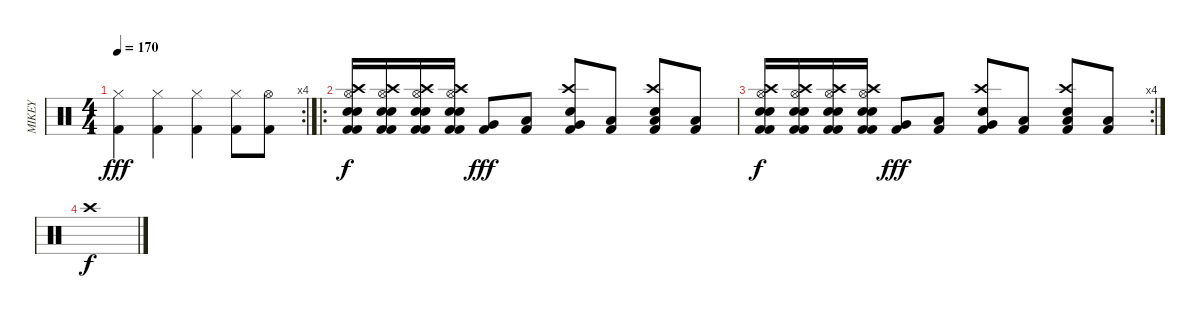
\track ("MIKEY" "MIKEY") {instrument percussion}
\staff {score}
\articulation defaults
\rc 4
\ts (4 4)
\tempo 170
\clef neutral
\ks c
("Hi-Hat (closed)" "Kick (hit) 2").4{dy fff} ("Hi-Hat (closed)" "Kick (hit) 2").4 ("Hi-Hat (closed)" "Kick (hit) 2").4 ("Hi-Hat (closed)" "Kick (hit) 2").8 ("Hi-Hat (open)" "Kick (hit) 2").8 |
\ro
("Crash high (hit)" "Hi-Hat (open)" "Kick (hit) 2" "Electric Snare (hit)" "Kick (hit) 2" "Snare (hit) 2").16{dy f} ("Crash high (hit)" "Hi-Hat (open)" "Kick (hit) 2" "Electric Snare (hit)" "Kick (hit) 2" "Snare (hit) 2").16 ("Crash high (hit)" "Hi-Hat (open)" "Kick (hit) 2" "Electric Snare (hit)" "Kick (hit) 2" "Snare (hit) 2").16 ("Crash high (hit)" "Hi-Hat (open)" "Kick (hit) 2" "Electric Snare (hit)" "Kick (hit) 2" "Snare (hit) 2").16 ("Kick (hit) 2" "Very Low Tom (hit)").8{dy fff} ("Kick (hit) 2" "Low Tom (hit)").8 ("Crash high (hit)" "Electric Snare (hit)" "Kick (hit) 2" "Very Low Tom (hit)").8 ("Kick (hit) 2" "Low Floor Tom (hit)").8 ("Crash high (hit)" "Electric Snare (hit)" "Kick (hit) 2" "Low Floor Tom (hit)").8 ("Kick (hit) 2" "Low Floor Tom (hit)").8 |
\rc 4
("Crash high (hit)" "Hi-Hat (open)" "Kick (hit) 2" "Electric Snare (hit)" "Kick (hit) 2" "Snare (hit) 2").16{dy f} ("Crash high (hit)" "Hi-Hat (open)" "Kick (hit) 2" "Electric Snare (hit)" "Kick (hit) 2" "Snare (hit) 2").16 ("Crash high (hit)" "Hi-Hat (open)" "Kick (hit) 2" "Electric Snare (hit)" "Kick (hit) 2" "Snare (hit) 2").16 ("Crash high (hit)" "Hi-Hat (open)" "Kick (hit) 2" "Electric Snare (hit)" "Kick (hit) 2" "Snare (hit) 2").16 ("Kick (hit) 2" "Very Low Tom (hit)").8{dy fff} ("Kick (hit) 2" "Low Tom (hit)").8 ("Crash high (hit)" "Electric Snare (hit)" "Kick (hit) 2" "Very Low Tom (hit)").8 ("Kick (hit) 2" "Low Floor Tom (hit)").8 ("Crash high (hit)" "Electric Snare (hit)" "Kick (hit) 2" "Low Floor Tom (hit)").8 ("Kick (hit) 2" "Low Floor Tom (hit)").8 |
"Crash high (hit)".1{dy f}
